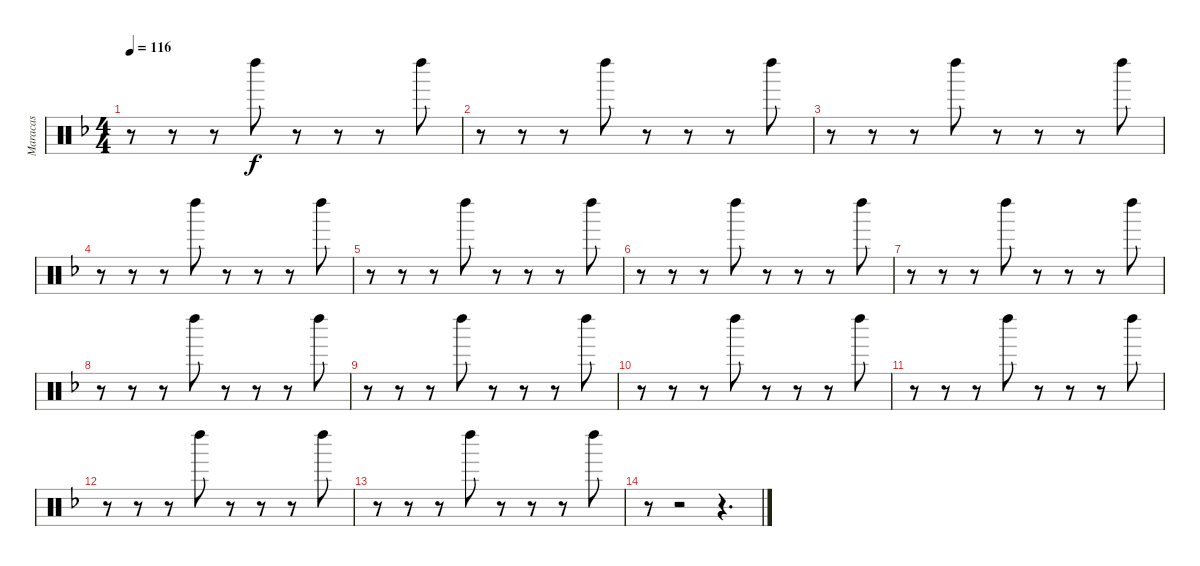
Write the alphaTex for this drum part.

\track ("Maracas" "Maracas") {instrument percussion}
\staff {score}
\articulation defaults
\ts (4 4)
\tempo 116
\clef neutral
\ks dminor
r.8{dy f} r.8 r.8 "Left Maraca (hit)".8 r.8 r.8 r.8 "Left Maraca (hit)".8 |
r.8 r.8 r.8 "Left Maraca (hit)".8 r.8 r.8 r.8 "Left Maraca (hit)".8 |
r.8 r.8 r.8 "Left Maraca (hit)".8 r.8 r.8 r.8 "Left Maraca (hit)".8 |
r.8 r.8 r.8 "Left Maraca (hit)".8 r.8 r.8 r.8 "Left Maraca (hit)".8 |
r.8 r.8 r.8 "Left Maraca (hit)".8 r.8 r.8 r.8 "Left Maraca (hit)".8 |
r.8 r.8 r.8 "Left Maraca (hit)".8 r.8 r.8 r.8 "Left Maraca (hit)".8 |
r.8 r.8 r.8 "Left Maraca (hit)".8 r.8 r.8 r.8 "Left Maraca (hit)".8 |
r.8 r.8 r.8 "Left Maraca (hit)".8 r.8 r.8 r.8 "Left Maraca (hit)".8 |
r.8 r.8 r.8 "Left Maraca (hit)".8 r.8 r.8 r.8 "Left Maraca (hit)".8 |
r.8 r.8 r.8 "Left Maraca (hit)".8 r.8 r.8 r.8 "Left Maraca (hit)".8 |
r.8 r.8 r.8 "Left Maraca (hit)".8 r.8 r.8 r.8 "Left Maraca (hit)".8 |
r.8 r.8 r.8 "Left Maraca (hit)".8 r.8 r.8 r.8 "Left Maraca (hit)".8 |
r.8 r.8 r.8 "Left Maraca (hit)".8 r.8 r.8 r.8 "Left Maraca (hit)".8 |
r.8 r.2 r.4{d}
